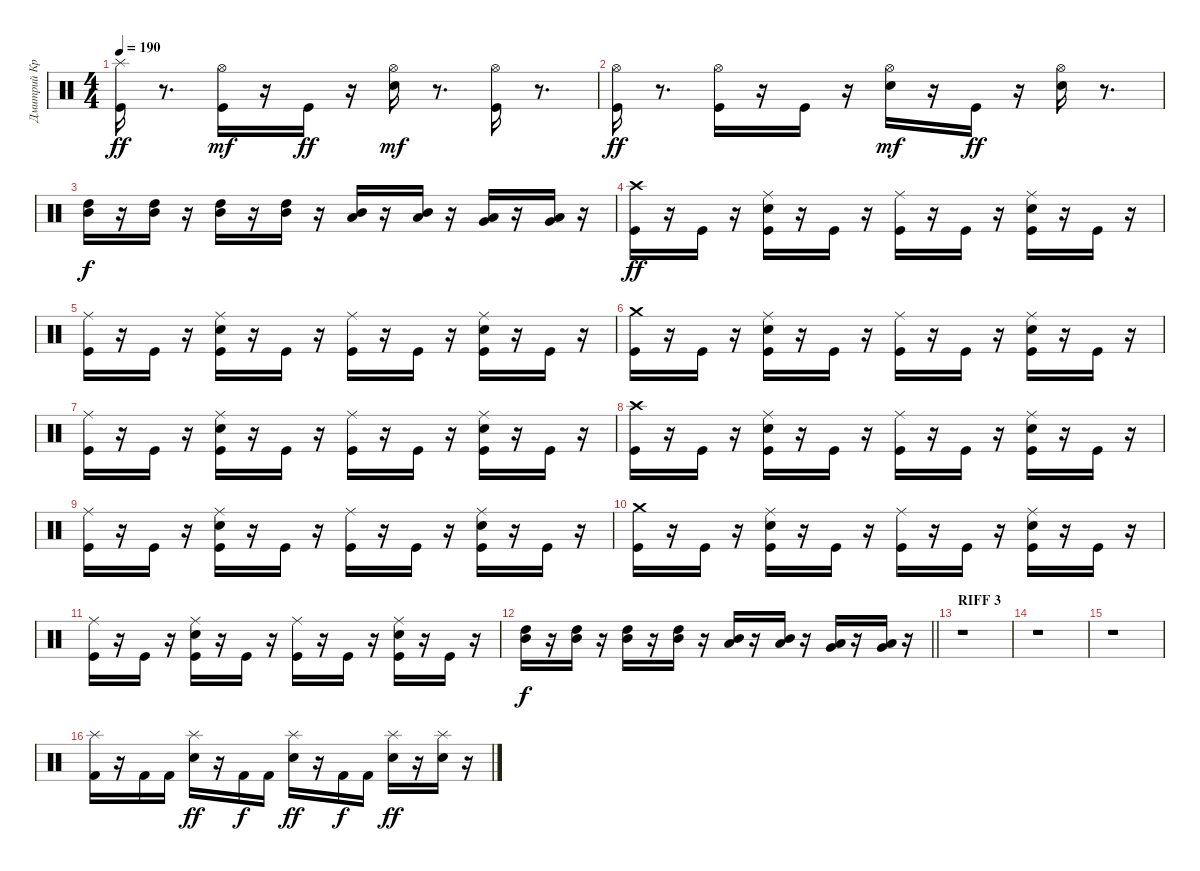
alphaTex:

\track ("Дмитрий Кривенков" "Дмитрий Кр") {instrument percussion}
\staff {score}
\articulation defaults
\ts (4 4)
\tempo 190
\clef neutral
\ks c
("Splash (hit)" "Kick (hit)").16{dy ff} r.8{d} ("Kick (hit)" "Hi-Hat (open)").16{dy mf} r.16 "Kick (hit)".16{dy ff} r.16 ("Snare (hit) 2" "Hi-Hat (open)").16{dy mf} r.8{d} ("Kick (hit)" "Hi-Hat (open)").16 r.8{d} |
("Hi-Hat (open)" "Kick (hit)").16{dy ff} r.8{d} ("Hi-Hat (open)" "Kick (hit)").16 r.16 "Kick (hit)".16 r.16 ("Snare (hit) 2" "Hi-Hat (open)").16{dy mf} r.16 "Kick (hit)".16{dy ff} r.16 ("Hi-Hat (open)" "Snare (hit) 2").16 r.8{d} |
("Mid Tom (hit)" "High Tom (hit)").16{dy f} r.16 ("Mid Tom (hit)" "High Tom (hit)").16 r.16 ("Mid Tom (hit)" "High Tom (hit)").16 r.16 ("Mid Tom (hit)" "High Tom (hit)").16 r.16 ("Low Tom (hit)" "Mid Tom (hit)").16 r.16 ("Low Tom (hit)" "Mid Tom (hit)").16 r.16 ("Very Low Tom (hit)" "Low Tom (hit)").16 r.16 ("Very Low Tom (hit)" "Low Tom (hit)").16 r.16 |
("Crash high (hit)" "Kick (hit)").16{dy ff} r.16 "Kick (hit)".16 r.16 ("Kick (hit)" "Snare (hit) 2" "Ride (middle)").16 r.16 "Kick (hit)".16 r.16 ("Ride (middle)" "Kick (hit)").16 r.16 "Kick (hit)".16 r.16 ("Ride (middle)" "Kick (hit)" "Snare (hit) 2").16 r.16 "Kick (hit)".16 r.16 |
("Ride (middle)" "Kick (hit)").16 r.16 "Kick (hit)".16 r.16 ("Ride (middle)" "Kick (hit)" "Snare (hit) 2").16 r.16 "Kick (hit)".16 r.16 ("Ride (middle)" "Kick (hit)").16 r.16 "Kick (hit)".16 r.16 ("Ride (middle)" "Kick (hit)" "Snare (hit) 2").16 r.16 "Kick (hit)".16 r.16 |
("Kick (hit)" "Crash medium (hit)").16 r.16 "Kick (hit)".16 r.16 ("Snare (hit) 2" "Kick (hit)" "Ride (middle)").16 r.16 "Kick (hit)".16 r.16 ("Kick (hit)" "Ride (middle)").16 r.16 "Kick (hit)".16 r.16 ("Snare (hit) 2" "Kick (hit)" "Ride (middle)").16 r.16 "Kick (hit)".16 r.16 |
("Kick (hit)" "Ride (middle)").16 r.16 "Kick (hit)".16 r.16 ("Snare (hit) 2" "Kick (hit)" "Ride (middle)").16 r.16 "Kick (hit)".16 r.16 ("Kick (hit)" "Ride (middle)").16 r.16 "Kick (hit)".16 r.16 ("Snare (hit) 2" "Kick (hit)" "Ride (middle)").16 r.16 "Kick (hit)".16 r.16 |
("Crash high (hit)" "Kick (hit)").16 r.16 "Kick (hit)".16 r.16 ("Kick (hit)" "Snare (hit) 2" "Ride (middle)").16 r.16 "Kick (hit)".16 r.16 ("Ride (middle)" "Kick (hit)").16 r.16 "Kick (hit)".16 r.16 ("Ride (middle)" "Kick (hit)" "Snare (hit) 2").16 r.16 "Kick (hit)".16 r.16 |
("Ride (middle)" "Kick (hit)").16 r.16 "Kick (hit)".16 r.16 ("Ride (middle)" "Kick (hit)" "Snare (hit) 2").16 r.16 "Kick (hit)".16 r.16 ("Ride (middle)" "Kick (hit)").16 r.16 "Kick (hit)".16 r.16 ("Ride (middle)" "Kick (hit)" "Snare (hit) 2").16 r.16 "Kick (hit)".16 r.16 |
("Kick (hit)" "Crash medium (hit)").16 r.16 "Kick (hit)".16 r.16 ("Snare (hit) 2" "Kick (hit)" "Ride (middle)").16 r.16 "Kick (hit)".16 r.16 ("Kick (hit)" "Ride (middle)").16 r.16 "Kick (hit)".16 r.16 ("Snare (hit) 2" "Kick (hit)" "Ride (middle)").16 r.16 "Kick (hit)".16 r.16 |
("Kick (hit)" "Ride (middle)").16 r.16 "Kick (hit)".16 r.16 ("Snare (hit) 2" "Kick (hit)" "Ride (middle)").16 r.16 "Kick (hit)".16 r.16 ("Kick (hit)" "Ride (middle)").16 r.16 "Kick (hit)".16 r.16 ("Snare (hit) 2" "Kick (hit)" "Ride (middle)").16 r.16 "Kick (hit)".16 r.16 |
\barLineRight lightlight
("High Tom (hit)" "Mid Tom (hit)").16{dy f} r.16 ("Mid Tom (hit)" "High Tom (hit)").16 r.16 ("Mid Tom (hit)" "High Tom (hit)").16 r.16 ("Mid Tom (hit)" "High Tom (hit)").16 r.16 ("Low Tom (hit)" "Mid Tom (hit)").16 r.16 ("Low Tom (hit)" "Mid Tom (hit)").16 r.16 ("Very Low Tom (hit)" "Low Tom (hit)").16 r.16 ("Very Low Tom (hit)" "Low Tom (hit)").16 r.16 |
\section ("" "RIFF 3")
r.1 |
r.1 |
r.1 |
("Splash (hit)" "Kick (hit) 2").16 r.16 "Kick (hit) 2".16 "Kick (hit) 2".16 ("Splash (hit)" "Snare (hit) 2").16{dy ff} r.16 "Kick (hit) 2".16{dy f} "Kick (hit) 2".16 ("Splash (hit)" "Snare (hit) 2").16{dy ff} r.16 "Kick (hit) 2".16{dy f} "Kick (hit) 2".16 ("Splash (hit)" "Snare (hit) 2").16{dy ff} r.16 ("Splash (hit)" "Snare (hit) 2").16 r.16
